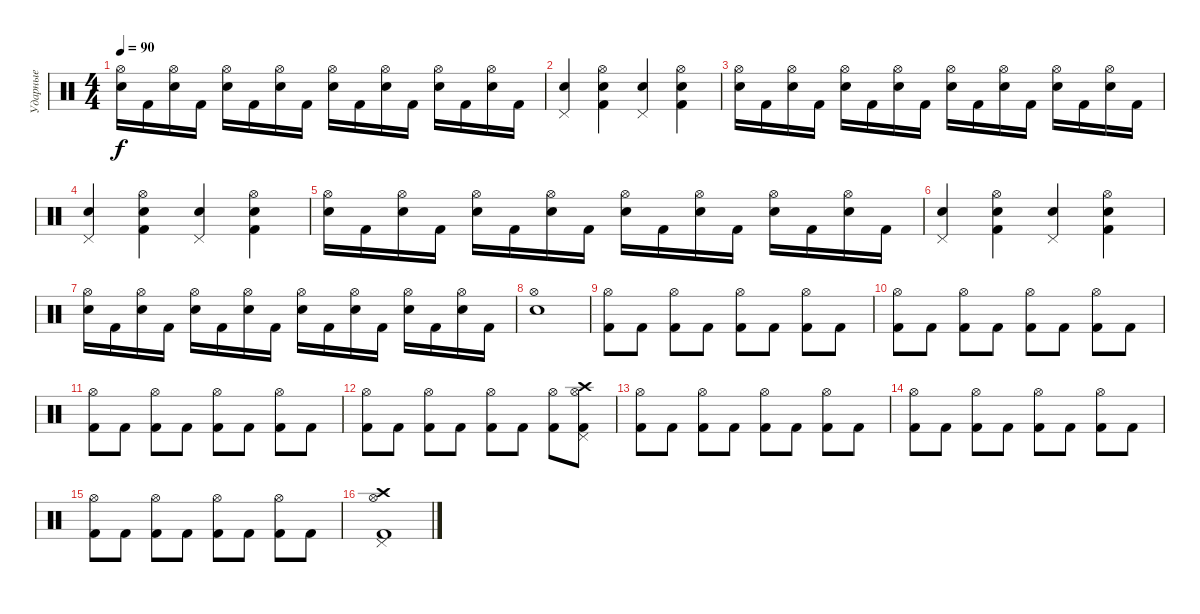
\track ("Ударные" "Ударные") {instrument percussion}
\staff {score}
\articulation defaults
\ts (4 4)
\tempo 90
\clef neutral
\ks c
("Hi-Hat (open)" "Snare (hit) 2").16{dy f} "Kick (hit) 2".16 ("Hi-Hat (open)" "Snare (hit) 2").16 "Kick (hit) 2".16 ("Hi-Hat (open)" "Snare (hit) 2").16 "Kick (hit) 2".16 ("Hi-Hat (open)" "Snare (hit) 2").16 "Kick (hit) 2".16 ("Hi-Hat (open)" "Snare (hit) 2").16 "Kick (hit) 2".16 ("Hi-Hat (open)" "Snare (hit) 2").16 "Kick (hit) 2".16 ("Hi-Hat (open)" "Snare (hit) 2").16 "Kick (hit) 2".16 ("Hi-Hat (open)" "Snare (hit) 2").16 "Kick (hit) 2".16 |
("Pedal Hi-Hat (hit)" "Snare (hit) 2").4 ("Snare (hit) 2" "Hi-Hat (open)" "Kick (hit) 2").4 ("Pedal Hi-Hat (hit)" "Snare (hit) 2").4 ("Snare (hit) 2" "Hi-Hat (open)" "Kick (hit) 2").4 |
("Hi-Hat (open)" "Snare (hit) 2").16 "Kick (hit) 2".16 ("Hi-Hat (open)" "Snare (hit) 2").16 "Kick (hit) 2".16 ("Hi-Hat (open)" "Snare (hit) 2").16 "Kick (hit) 2".16 ("Hi-Hat (open)" "Snare (hit) 2").16 "Kick (hit) 2".16 ("Hi-Hat (open)" "Snare (hit) 2").16 "Kick (hit) 2".16 ("Hi-Hat (open)" "Snare (hit) 2").16 "Kick (hit) 2".16 ("Hi-Hat (open)" "Snare (hit) 2").16 "Kick (hit) 2".16 ("Hi-Hat (open)" "Snare (hit) 2").16 "Kick (hit) 2".16 |
("Pedal Hi-Hat (hit)" "Snare (hit) 2").4 ("Snare (hit) 2" "Hi-Hat (open)" "Kick (hit) 2").4 ("Pedal Hi-Hat (hit)" "Snare (hit) 2").4 ("Snare (hit) 2" "Hi-Hat (open)" "Kick (hit) 2").4 |
("Hi-Hat (open)" "Snare (hit) 2").16 "Kick (hit) 2".16 ("Hi-Hat (open)" "Snare (hit) 2").16 "Kick (hit) 2".16 ("Hi-Hat (open)" "Snare (hit) 2").16 "Kick (hit) 2".16 ("Hi-Hat (open)" "Snare (hit) 2").16 "Kick (hit) 2".16 ("Hi-Hat (open)" "Snare (hit) 2").16 "Kick (hit) 2".16 ("Hi-Hat (open)" "Snare (hit) 2").16 "Kick (hit) 2".16 ("Hi-Hat (open)" "Snare (hit) 2").16 "Kick (hit) 2".16 ("Hi-Hat (open)" "Snare (hit) 2").16 "Kick (hit) 2".16 |
("Pedal Hi-Hat (hit)" "Snare (hit) 2").4 ("Snare (hit) 2" "Hi-Hat (open)" "Kick (hit) 2").4 ("Pedal Hi-Hat (hit)" "Snare (hit) 2").4 ("Snare (hit) 2" "Hi-Hat (open)" "Kick (hit) 2").4 |
("Hi-Hat (open)" "Snare (hit) 2").16 "Kick (hit) 2".16 ("Hi-Hat (open)" "Snare (hit) 2").16 "Kick (hit) 2".16 ("Hi-Hat (open)" "Snare (hit) 2").16 "Kick (hit) 2".16 ("Hi-Hat (open)" "Snare (hit) 2").16 "Kick (hit) 2".16 ("Hi-Hat (open)" "Snare (hit) 2").16 "Kick (hit) 2".16 ("Hi-Hat (open)" "Snare (hit) 2").16 "Kick (hit) 2".16 ("Hi-Hat (open)" "Snare (hit) 2").16 "Kick (hit) 2".16 ("Hi-Hat (open)" "Snare (hit) 2").16 "Kick (hit) 2".16 |
("Hi-Hat (open)" "Snare (hit) 2").1 |
("Hi-Hat (open)" "Kick (hit) 2").8 "Kick (hit) 2".8 ("Hi-Hat (open)" "Kick (hit) 2").8 "Kick (hit) 2".8 ("Hi-Hat (open)" "Kick (hit) 2").8 "Kick (hit) 2".8 ("Hi-Hat (open)" "Kick (hit) 2").8 "Kick (hit) 2".8 |
("Hi-Hat (open)" "Kick (hit) 2").8 "Kick (hit) 2".8 ("Hi-Hat (open)" "Kick (hit) 2").8 "Kick (hit) 2".8 ("Hi-Hat (open)" "Kick (hit) 2").8 "Kick (hit) 2".8 ("Hi-Hat (open)" "Kick (hit) 2").8 "Kick (hit) 2".8 |
("Hi-Hat (open)" "Kick (hit) 2").8 "Kick (hit) 2".8 ("Hi-Hat (open)" "Kick (hit) 2").8 "Kick (hit) 2".8 ("Hi-Hat (open)" "Kick (hit) 2").8 "Kick (hit) 2".8 ("Hi-Hat (open)" "Kick (hit) 2").8 "Kick (hit) 2".8 |
("Hi-Hat (open)" "Kick (hit) 2").8 "Kick (hit) 2".8 ("Hi-Hat (open)" "Kick (hit) 2").8 "Kick (hit) 2".8 ("Hi-Hat (open)" "Kick (hit) 2").8 "Kick (hit) 2".8 ("Hi-Hat (open)" "Kick (hit) 2").8 ("Crash high (hit)" "Hi-Hat (open)" "Pedal Hi-Hat (hit)" "Kick (hit) 2").8 |
("Hi-Hat (open)" "Kick (hit) 2").8 "Kick (hit) 2".8 ("Hi-Hat (open)" "Kick (hit) 2").8 "Kick (hit) 2".8 ("Hi-Hat (open)" "Kick (hit) 2").8 "Kick (hit) 2".8 ("Hi-Hat (open)" "Kick (hit) 2").8 "Kick (hit) 2".8 |
("Hi-Hat (open)" "Kick (hit) 2").8 "Kick (hit) 2".8 ("Hi-Hat (open)" "Kick (hit) 2").8 "Kick (hit) 2".8 ("Hi-Hat (open)" "Kick (hit) 2").8 "Kick (hit) 2".8 ("Hi-Hat (open)" "Kick (hit) 2").8 "Kick (hit) 2".8 |
("Hi-Hat (open)" "Kick (hit) 2").8 "Kick (hit) 2".8 ("Hi-Hat (open)" "Kick (hit) 2").8 "Kick (hit) 2".8 ("Hi-Hat (open)" "Kick (hit) 2").8 "Kick (hit) 2".8 ("Hi-Hat (open)" "Kick (hit) 2").8 "Kick (hit) 2".8 |
("Crash high (hit)" "Hi-Hat (open)" "Pedal Hi-Hat (hit)" "Kick (hit) 2").1
